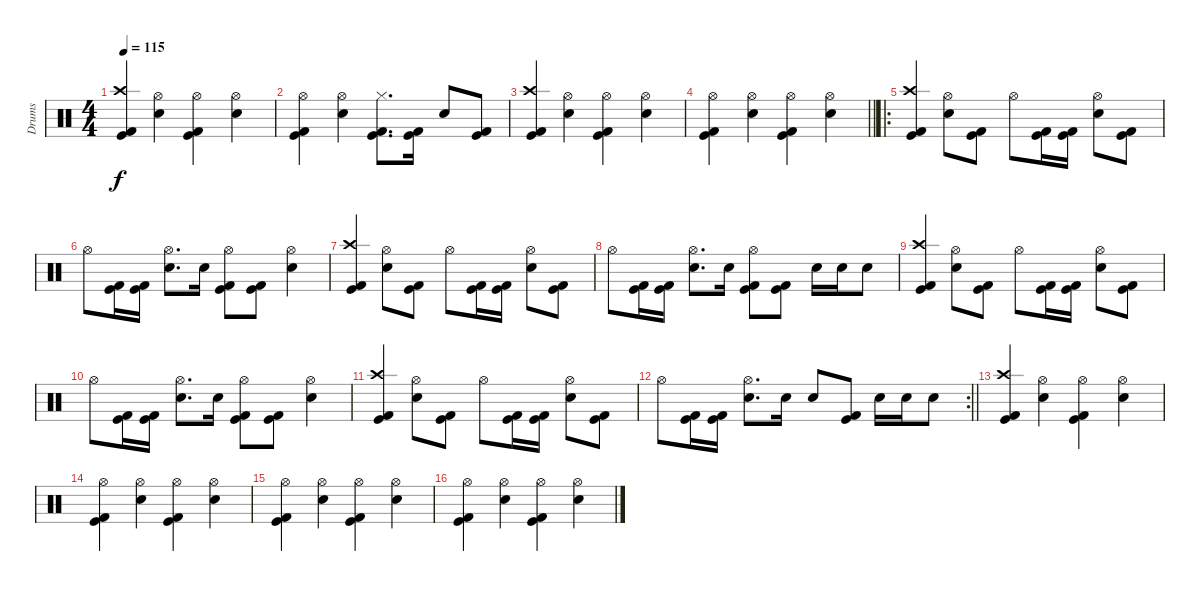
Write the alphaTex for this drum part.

\track ("Drums" "Drums") {instrument percussion}
\staff {score}
\articulation defaults
\ts (4 4)
\tempo 115
\clef neutral
\ks c
("Kick (hit) 2" "Crash high (hit)" "Kick (hit)").4{dy f} ("Electric Snare (hit)" "Hi-Hat (open)").4 ("Kick (hit) 2" "Hi-Hat (open)" "Kick (hit)").4 ("Electric Snare (hit)" "Hi-Hat (open)").4 |
("Kick (hit) 2" "Hi-Hat (open)" "Kick (hit)").4 ("Electric Snare (hit)" "Hi-Hat (open)").4 ("Kick (hit) 2" "Hi-Hat (closed)" "Kick (hit)").8{d} ("Kick (hit) 2" "Kick (hit)").16 "Electric Snare (hit)".8 ("Kick (hit) 2" "Kick (hit)").8 |
("Kick (hit) 2" "Crash high (hit)" "Kick (hit)").4 ("Electric Snare (hit)" "Hi-Hat (open)").4 ("Kick (hit) 2" "Hi-Hat (open)" "Kick (hit)").4 ("Electric Snare (hit)" "Hi-Hat (open)").4 |
\barLineRight lightlight
("Kick (hit) 2" "Hi-Hat (open)" "Kick (hit)").4 ("Electric Snare (hit)" "Hi-Hat (open)").4 ("Kick (hit) 2" "Hi-Hat (open)" "Kick (hit)").4 ("Electric Snare (hit)" "Hi-Hat (open)").4 |
\ro
\section ("" "")
("Kick (hit) 2" "Crash high (hit)" "Kick (hit)").4 ("Electric Snare (hit)" "Hi-Hat (open)").8 ("Kick (hit) 2" "Kick (hit)").8 "Hi-Hat (open)".8 ("Kick (hit) 2" "Kick (hit)").16 ("Kick (hit) 2" "Kick (hit)").16 ("Electric Snare (hit)" "Hi-Hat (open)").8 ("Kick (hit) 2" "Kick (hit)").8 |
"Hi-Hat (open)".8 ("Kick (hit) 2" "Kick (hit)").16 ("Kick (hit) 2" "Kick (hit)").16 ("Electric Snare (hit)" "Hi-Hat (open)").8{d} "Electric Snare (hit)".16 ("Kick (hit) 2" "Hi-Hat (open)" "Kick (hit)").8 ("Kick (hit) 2" "Kick (hit)").8 ("Electric Snare (hit)" "Hi-Hat (open)").4 |
("Kick (hit) 2" "Crash high (hit)" "Kick (hit)").4 ("Electric Snare (hit)" "Hi-Hat (open)").8 ("Kick (hit) 2" "Kick (hit)").8 "Hi-Hat (open)".8 ("Kick (hit) 2" "Kick (hit)").16 ("Kick (hit) 2" "Kick (hit)").16 ("Electric Snare (hit)" "Hi-Hat (open)").8 ("Kick (hit) 2" "Kick (hit)").8 |
"Hi-Hat (open)".8 ("Kick (hit) 2" "Kick (hit)").16 ("Kick (hit) 2" "Kick (hit)").16 ("Electric Snare (hit)" "Hi-Hat (open)").8{d} "Electric Snare (hit)".16 ("Kick (hit) 2" "Hi-Hat (open)" "Kick (hit)").8 ("Kick (hit) 2" "Kick (hit)").8 "Electric Snare (hit)".16 "Electric Snare (hit)".16 "Electric Snare (hit)".8 |
("Kick (hit) 2" "Crash high (hit)" "Kick (hit)").4 ("Electric Snare (hit)" "Hi-Hat (open)").8 ("Kick (hit) 2" "Kick (hit)").8 "Hi-Hat (open)".8 ("Kick (hit) 2" "Kick (hit)").16 ("Kick (hit) 2" "Kick (hit)").16 ("Electric Snare (hit)" "Hi-Hat (open)").8 ("Kick (hit) 2" "Kick (hit)").8 |
"Hi-Hat (open)".8 ("Kick (hit) 2" "Kick (hit)").16 ("Kick (hit) 2" "Kick (hit)").16 ("Electric Snare (hit)" "Hi-Hat (open)").8{d} "Electric Snare (hit)".16 ("Kick (hit) 2" "Hi-Hat (open)" "Kick (hit)").8 ("Kick (hit) 2" "Kick (hit)").8 ("Electric Snare (hit)" "Hi-Hat (open)").4 |
("Kick (hit) 2" "Crash high (hit)" "Kick (hit)").4 ("Electric Snare (hit)" "Hi-Hat (open)").8 ("Kick (hit) 2" "Kick (hit)").8 "Hi-Hat (open)".8 ("Kick (hit) 2" "Kick (hit)").16 ("Kick (hit) 2" "Kick (hit)").16 ("Electric Snare (hit)" "Hi-Hat (open)").8 ("Kick (hit) 2" "Kick (hit)").8 |
\rc 2
\barLineRight lightlight "Hi-Hat (open)".8
("Kick (hit) 2" "Kick (hit)").16 ("Kick (hit) 2" "Kick (hit)").16 ("Electric Snare (hit)" "Hi-Hat (open)").8{d} "Electric Snare (hit)".16 "Electric Snare (hit)".8 ("Kick (hit) 2" "Kick (hit)").8 "Electric Snare (hit)".16 "Electric Snare (hit)".16 "Electric Snare (hit)".8 |
("Kick (hit) 2" "Crash high (hit)" "Kick (hit)").4 ("Electric Snare (hit)" "Hi-Hat (open)").4 ("Kick (hit) 2" "Hi-Hat (open)" "Kick (hit)").4 ("Electric Snare (hit)" "Hi-Hat (open)").4 |
("Kick (hit) 2" "Hi-Hat (open)" "Kick (hit)").4 ("Electric Snare (hit)" "Hi-Hat (open)").4 ("Kick (hit) 2" "Hi-Hat (open)" "Kick (hit)").4 ("Electric Snare (hit)" "Hi-Hat (open)").4 |
("Kick (hit) 2" "Hi-Hat (open)" "Kick (hit)").4 ("Electric Snare (hit)" "Hi-Hat (open)").4 ("Kick (hit) 2" "Hi-Hat (open)" "Kick (hit)").4 ("Electric Snare (hit)" "Hi-Hat (open)").4 |
("Kick (hit) 2" "Hi-Hat (open)" "Kick (hit)").4 ("Electric Snare (hit)" "Hi-Hat (open)").4 ("Kick (hit) 2" "Hi-Hat (open)" "Kick (hit)").4 ("Electric Snare (hit)" "Hi-Hat (open)").4
